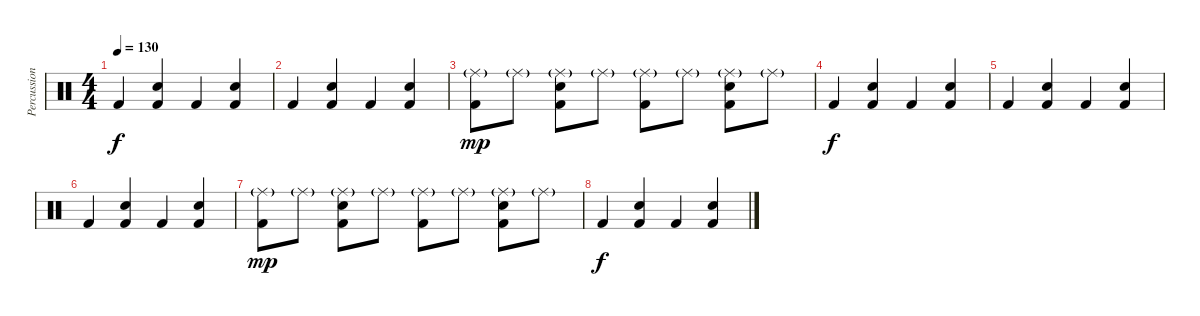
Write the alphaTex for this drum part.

\track ("Percussion" "Percussion") {instrument percussion}
\staff {score}
\articulation defaults
\ts (4 4)
\tempo 130
\clef neutral
\ks c "Kick (hit) 2".4{dy f}
("Snare (hit) 2" "Kick (hit) 2").4 "Kick (hit) 2".4 ("Snare (hit) 2" "Kick (hit) 2").4 |
"Kick (hit) 2".4 ("Snare (hit) 2" "Kick (hit) 2").4 "Kick (hit) 2".4 ("Snare (hit) 2" "Kick (hit) 2").4 |
("Kick (hit) 2" "Ride (middle)"{g}).8{dy mp} "Ride (middle)"{g}.8 ("Snare (hit) 2" "Kick (hit) 2" "Ride (middle)"{g}).8 "Ride (middle)"{g}.8 ("Kick (hit) 2" "Ride (middle)"{g}).8 "Ride (middle)"{g}.8 ("Snare (hit) 2" "Kick (hit) 2" "Ride (middle)"{g}).8 "Ride (middle)"{g}.8 |
"Kick (hit) 2".4{dy f} ("Snare (hit) 2" "Kick (hit) 2").4 "Kick (hit) 2".4 ("Snare (hit) 2" "Kick (hit) 2").4 |
"Kick (hit) 2".4 ("Snare (hit) 2" "Kick (hit) 2").4 "Kick (hit) 2".4 ("Snare (hit) 2" "Kick (hit) 2").4 |
"Kick (hit) 2".4 ("Snare (hit) 2" "Kick (hit) 2").4 "Kick (hit) 2".4 ("Snare (hit) 2" "Kick (hit) 2").4 |
("Kick (hit) 2" "Ride (middle)"{g}).8{dy mp} "Ride (middle)"{g}.8 ("Snare (hit) 2" "Kick (hit) 2" "Ride (middle)"{g}).8 "Ride (middle)"{g}.8 ("Kick (hit) 2" "Ride (middle)"{g}).8 "Ride (middle)"{g}.8 ("Snare (hit) 2" "Kick (hit) 2" "Ride (middle)"{g}).8 "Ride (middle)"{g}.8 |
"Kick (hit) 2".4{dy f} ("Snare (hit) 2" "Kick (hit) 2").4 "Kick (hit) 2".4 ("Snare (hit) 2" "Kick (hit) 2").4
